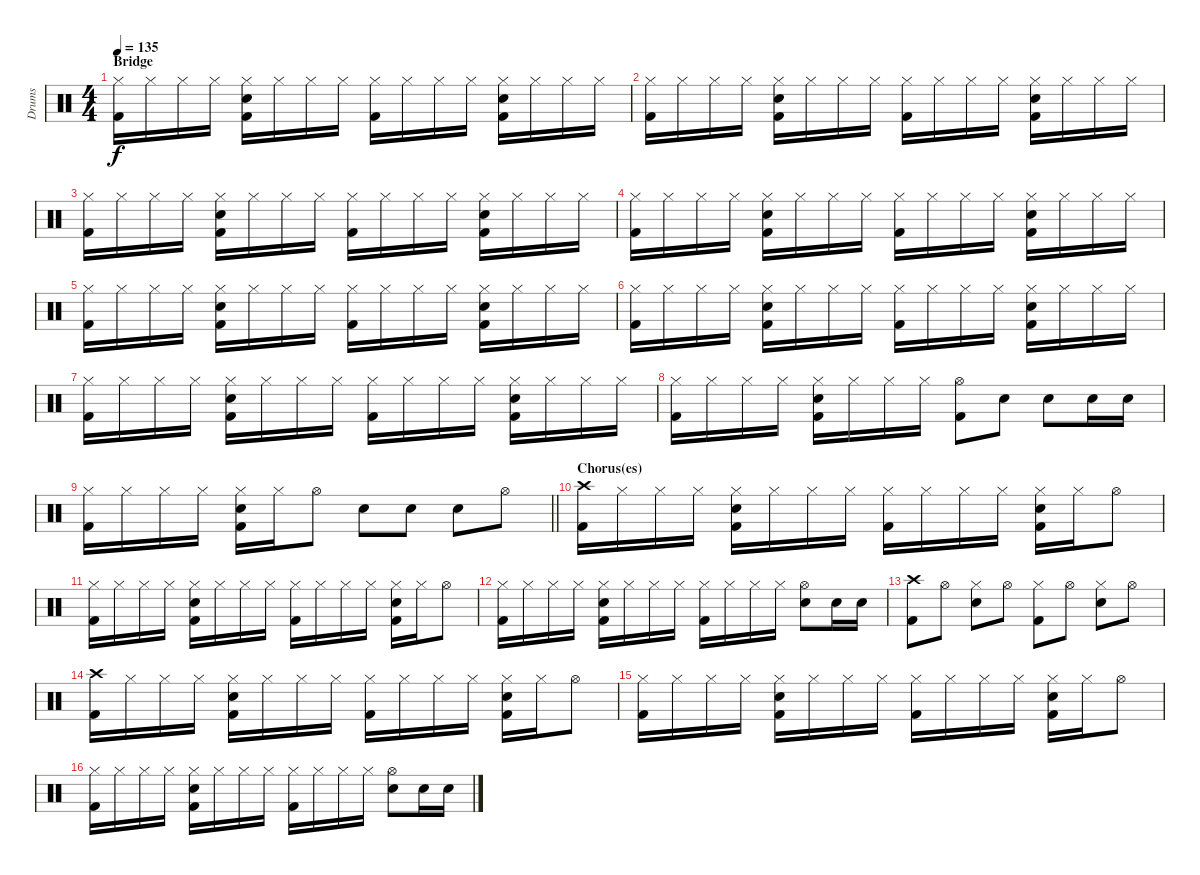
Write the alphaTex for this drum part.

\track ("Drums" "Drums") {instrument percussion}
\staff {score}
\articulation defaults
\ts (4 4)
\section ("" "Bridge")
\tempo 135
\clef neutral
\ks c
("Hi-Hat (closed)" "Kick (hit) 2").16{dy f} "Hi-Hat (closed)".16 "Hi-Hat (closed)".16 "Hi-Hat (closed)".16 ("Hi-Hat (closed)" "Electric Snare (hit)" "Kick (hit) 2").16 "Hi-Hat (closed)".16 "Hi-Hat (closed)".16 "Hi-Hat (closed)".16 ("Hi-Hat (closed)" "Kick (hit) 2").16 "Hi-Hat (closed)".16 "Hi-Hat (closed)".16 "Hi-Hat (closed)".16 ("Hi-Hat (closed)" "Electric Snare (hit)" "Kick (hit) 2").16 "Hi-Hat (closed)".16 "Hi-Hat (closed)".16 "Hi-Hat (closed)".16 |
("Hi-Hat (closed)" "Kick (hit) 2").16 "Hi-Hat (closed)".16 "Hi-Hat (closed)".16 "Hi-Hat (closed)".16 ("Hi-Hat (closed)" "Electric Snare (hit)" "Kick (hit) 2").16 "Hi-Hat (closed)".16 "Hi-Hat (closed)".16 "Hi-Hat (closed)".16 ("Hi-Hat (closed)" "Kick (hit) 2").16 "Hi-Hat (closed)".16 "Hi-Hat (closed)".16 "Hi-Hat (closed)".16 ("Hi-Hat (closed)" "Electric Snare (hit)" "Kick (hit) 2").16 "Hi-Hat (closed)".16 "Hi-Hat (closed)".16 "Hi-Hat (closed)".16 |
("Hi-Hat (closed)" "Kick (hit) 2").16 "Hi-Hat (closed)".16 "Hi-Hat (closed)".16 "Hi-Hat (closed)".16 ("Hi-Hat (closed)" "Electric Snare (hit)" "Kick (hit) 2").16 "Hi-Hat (closed)".16 "Hi-Hat (closed)".16 "Hi-Hat (closed)".16 ("Hi-Hat (closed)" "Kick (hit) 2").16 "Hi-Hat (closed)".16 "Hi-Hat (closed)".16 "Hi-Hat (closed)".16 ("Hi-Hat (closed)" "Electric Snare (hit)" "Kick (hit) 2").16 "Hi-Hat (closed)".16 "Hi-Hat (closed)".16 "Hi-Hat (closed)".16 |
("Hi-Hat (closed)" "Kick (hit) 2").16 "Hi-Hat (closed)".16 "Hi-Hat (closed)".16 "Hi-Hat (closed)".16 ("Hi-Hat (closed)" "Electric Snare (hit)" "Kick (hit) 2").16 "Hi-Hat (closed)".16 "Hi-Hat (closed)".16 "Hi-Hat (closed)".16 ("Hi-Hat (closed)" "Kick (hit) 2").16 "Hi-Hat (closed)".16 "Hi-Hat (closed)".16 "Hi-Hat (closed)".16 ("Hi-Hat (closed)" "Electric Snare (hit)" "Kick (hit) 2").16 "Hi-Hat (closed)".16 "Hi-Hat (closed)".16 "Hi-Hat (closed)".16 |
("Hi-Hat (closed)" "Kick (hit) 2").16 "Hi-Hat (closed)".16 "Hi-Hat (closed)".16 "Hi-Hat (closed)".16 ("Hi-Hat (closed)" "Electric Snare (hit)" "Kick (hit) 2").16 "Hi-Hat (closed)".16 "Hi-Hat (closed)".16 "Hi-Hat (closed)".16 ("Hi-Hat (closed)" "Kick (hit) 2").16 "Hi-Hat (closed)".16 "Hi-Hat (closed)".16 "Hi-Hat (closed)".16 ("Hi-Hat (closed)" "Electric Snare (hit)" "Kick (hit) 2").16 "Hi-Hat (closed)".16 "Hi-Hat (closed)".16 "Hi-Hat (closed)".16 |
("Hi-Hat (closed)" "Kick (hit) 2").16 "Hi-Hat (closed)".16 "Hi-Hat (closed)".16 "Hi-Hat (closed)".16 ("Hi-Hat (closed)" "Electric Snare (hit)" "Kick (hit) 2").16 "Hi-Hat (closed)".16 "Hi-Hat (closed)".16 "Hi-Hat (closed)".16 ("Hi-Hat (closed)" "Kick (hit) 2").16 "Hi-Hat (closed)".16 "Hi-Hat (closed)".16 "Hi-Hat (closed)".16 ("Hi-Hat (closed)" "Electric Snare (hit)" "Kick (hit) 2").16 "Hi-Hat (closed)".16 "Hi-Hat (closed)".16 "Hi-Hat (closed)".16 |
("Hi-Hat (closed)" "Kick (hit) 2").16 "Hi-Hat (closed)".16 "Hi-Hat (closed)".16 "Hi-Hat (closed)".16 ("Hi-Hat (closed)" "Electric Snare (hit)" "Kick (hit) 2").16 "Hi-Hat (closed)".16 "Hi-Hat (closed)".16 "Hi-Hat (closed)".16 ("Hi-Hat (closed)" "Kick (hit) 2").16 "Hi-Hat (closed)".16 "Hi-Hat (closed)".16 "Hi-Hat (closed)".16 ("Hi-Hat (closed)" "Electric Snare (hit)" "Kick (hit) 2").16 "Hi-Hat (closed)".16 "Hi-Hat (closed)".16 "Hi-Hat (closed)".16 |
("Hi-Hat (closed)" "Kick (hit) 2").16 "Hi-Hat (closed)".16 "Hi-Hat (closed)".16 "Hi-Hat (closed)".16 ("Hi-Hat (closed)" "Electric Snare (hit)" "Kick (hit) 2").16 "Hi-Hat (closed)".16 "Hi-Hat (closed)".16 "Hi-Hat (closed)".16 ("Hi-Hat (open)" "Kick (hit) 2").8 "Electric Snare (hit)".8 "Electric Snare (hit)".8 "Electric Snare (hit)".16 "Electric Snare (hit)".16 |
\barLineRight lightlight
("Hi-Hat (closed)" "Kick (hit) 2").16 "Hi-Hat (closed)".16 "Hi-Hat (closed)".16 "Hi-Hat (closed)".16 ("Hi-Hat (closed)" "Electric Snare (hit)" "Kick (hit) 2").16 "Hi-Hat (closed)".16 "Hi-Hat (open)".8 "Electric Snare (hit)".8 "Electric Snare (hit)".8 "Electric Snare (hit)".8 "Hi-Hat (open)".8 |
\section ("" "Chorus(es)")
("Crash high (hit)" "Kick (hit) 2").16 "Hi-Hat (closed)".16 "Hi-Hat (closed)".16 "Hi-Hat (closed)".16 ("Hi-Hat (closed)" "Electric Snare (hit)" "Kick (hit) 2").16 "Hi-Hat (closed)".16 "Hi-Hat (closed)".16 "Hi-Hat (closed)".16 ("Hi-Hat (closed)" "Kick (hit) 2").16 "Hi-Hat (closed)".16 "Hi-Hat (closed)".16 "Hi-Hat (closed)".16 ("Hi-Hat (closed)" "Electric Snare (hit)" "Kick (hit) 2").16 "Hi-Hat (closed)".16 "Hi-Hat (open)".8 |
("Hi-Hat (closed)" "Kick (hit) 2").16 "Hi-Hat (closed)".16 "Hi-Hat (closed)".16 "Hi-Hat (closed)".16 ("Hi-Hat (closed)" "Electric Snare (hit)" "Kick (hit) 2").16 "Hi-Hat (closed)".16 "Hi-Hat (closed)".16 "Hi-Hat (closed)".16 ("Hi-Hat (closed)" "Kick (hit) 2").16 "Hi-Hat (closed)".16 "Hi-Hat (closed)".16 "Hi-Hat (closed)".16 ("Hi-Hat (closed)" "Electric Snare (hit)" "Kick (hit) 2").16 "Hi-Hat (closed)".16 "Hi-Hat (open)".8 |
("Hi-Hat (closed)" "Kick (hit) 2").16 "Hi-Hat (closed)".16 "Hi-Hat (closed)".16 "Hi-Hat (closed)".16 ("Hi-Hat (closed)" "Electric Snare (hit)" "Kick (hit) 2").16 "Hi-Hat (closed)".16 "Hi-Hat (closed)".16 "Hi-Hat (closed)".16 ("Hi-Hat (closed)" "Kick (hit) 2").16 "Hi-Hat (closed)".16 "Hi-Hat (closed)".16 "Hi-Hat (closed)".16 ("Hi-Hat (open)" "Electric Snare (hit)").8 "Electric Snare (hit)".16 "Electric Snare (hit)".16 |
("Crash high (hit)" "Kick (hit) 2").8 "Hi-Hat (open)".8 ("Hi-Hat (closed)" "Electric Snare (hit)").8 "Hi-Hat (open)".8 ("Hi-Hat (closed)" "Kick (hit) 2").8 "Hi-Hat (open)".8 ("Hi-Hat (closed)" "Electric Snare (hit)").8 "Hi-Hat (open)".8 |
("Crash high (hit)" "Kick (hit) 2").16 "Hi-Hat (closed)".16 "Hi-Hat (closed)".16 "Hi-Hat (closed)".16 ("Hi-Hat (closed)" "Electric Snare (hit)" "Kick (hit) 2").16 "Hi-Hat (closed)".16 "Hi-Hat (closed)".16 "Hi-Hat (closed)".16 ("Hi-Hat (closed)" "Kick (hit) 2").16 "Hi-Hat (closed)".16 "Hi-Hat (closed)".16 "Hi-Hat (closed)".16 ("Hi-Hat (closed)" "Electric Snare (hit)" "Kick (hit) 2").16 "Hi-Hat (closed)".16 "Hi-Hat (open)".8 |
("Hi-Hat (closed)" "Kick (hit) 2").16 "Hi-Hat (closed)".16 "Hi-Hat (closed)".16 "Hi-Hat (closed)".16 ("Hi-Hat (closed)" "Electric Snare (hit)" "Kick (hit) 2").16 "Hi-Hat (closed)".16 "Hi-Hat (closed)".16 "Hi-Hat (closed)".16 ("Hi-Hat (closed)" "Kick (hit) 2").16 "Hi-Hat (closed)".16 "Hi-Hat (closed)".16 "Hi-Hat (closed)".16 ("Hi-Hat (closed)" "Electric Snare (hit)" "Kick (hit) 2").16 "Hi-Hat (closed)".16 "Hi-Hat (open)".8 |
("Hi-Hat (closed)" "Kick (hit) 2").16 "Hi-Hat (closed)".16 "Hi-Hat (closed)".16 "Hi-Hat (closed)".16 ("Hi-Hat (closed)" "Electric Snare (hit)" "Kick (hit) 2").16 "Hi-Hat (closed)".16 "Hi-Hat (closed)".16 "Hi-Hat (closed)".16 ("Hi-Hat (closed)" "Kick (hit) 2").16 "Hi-Hat (closed)".16 "Hi-Hat (closed)".16 "Hi-Hat (closed)".16 ("Hi-Hat (open)" "Electric Snare (hit)").8 "Electric Snare (hit)".16 "Electric Snare (hit)".16
